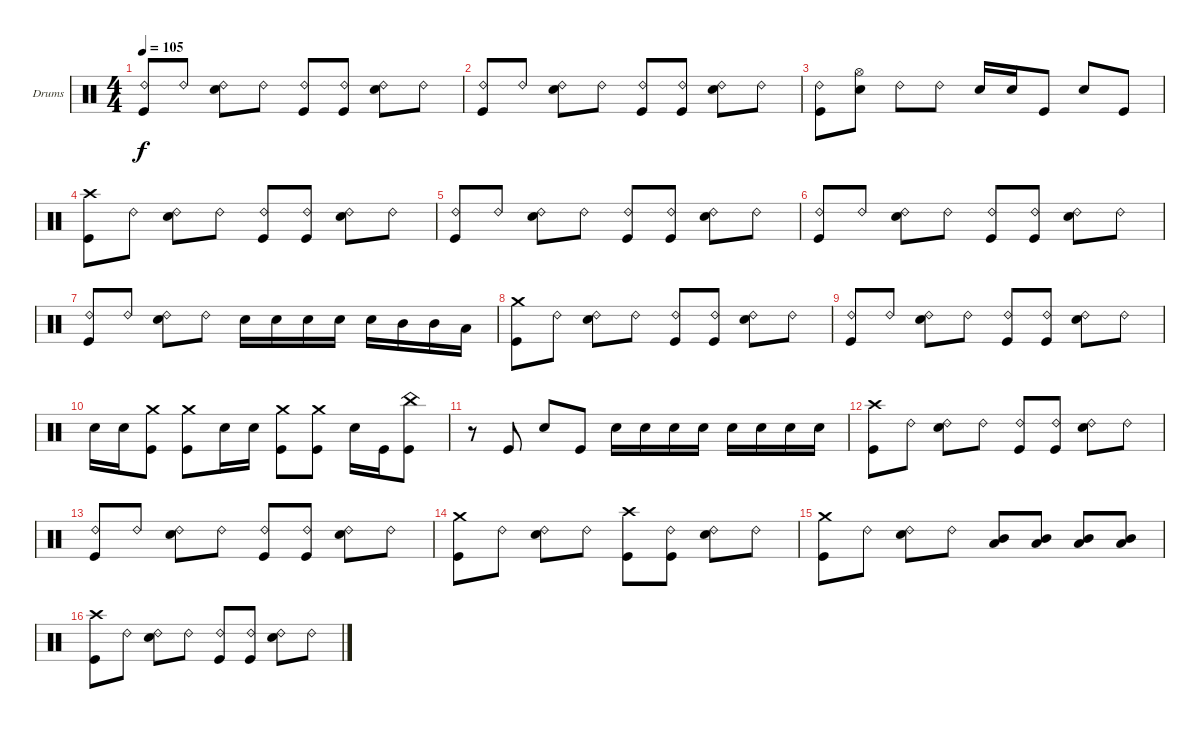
\bracketExtendMode groupsimilarinstruments
\firstSystemTrackNameOrientation horizontal
\otherSystemsTrackNameOrientation horizontal
\track ("Drumkit" "Drums") {instrument percussion}
\staff {score}
\articulation defaults
\ts (4 4)
\tempo 105
\clef neutral
\ks c
("Ride (bell) 2" "Kick (hit)").8{dy f} "Ride (bell) 2".8 ("Ride (bell) 2" "Snare (hit) 2").8 "Ride (bell) 2".8 ("Ride (bell) 2" "Kick (hit)").8 ("Ride (bell) 2" "Kick (hit)").8 ("Ride (bell) 2" "Snare (hit) 2").8 "Ride (bell) 2".8 |
("Ride (bell) 2" "Kick (hit)").8 "Ride (bell) 2".8 ("Ride (bell) 2" "Snare (hit) 2").8 "Ride (bell) 2".8 ("Ride (bell) 2" "Kick (hit)").8 ("Ride (bell) 2" "Kick (hit)").8 ("Ride (bell) 2" "Snare (hit) 2").8 "Ride (bell) 2".8 |
("Ride (bell) 2" "Kick (hit)").8 ("Hi-Hat (open)" "Snare (hit) 2").8 "Ride (bell) 2".8 "Ride (bell) 2".8 "Snare (hit) 2".16 "Snare (hit) 2".16 "Kick (hit)".8 "Snare (hit) 2".8 "Kick (hit)".8 |
("Crash high (hit)" "Kick (hit)").8 "Ride (bell) 2".8 ("Ride (bell) 2" "Snare (hit) 2").8 "Ride (bell) 2".8 ("Ride (bell) 2" "Kick (hit)").8 ("Ride (bell) 2" "Kick (hit)").8 ("Ride (bell) 2" "Snare (hit) 2").8 "Ride (bell) 2".8 |
("Ride (bell) 2" "Kick (hit)").8 "Ride (bell) 2".8 ("Ride (bell) 2" "Snare (hit) 2").8 "Ride (bell) 2".8 ("Ride (bell) 2" "Kick (hit)").8 ("Ride (bell) 2" "Kick (hit)").8 ("Ride (bell) 2" "Snare (hit) 2").8 "Ride (bell) 2".8 |
("Ride (bell) 2" "Kick (hit)").8 "Ride (bell) 2".8 ("Ride (bell) 2" "Snare (hit) 2").8 "Ride (bell) 2".8 ("Ride (bell) 2" "Kick (hit)").8 ("Ride (bell) 2" "Kick (hit)").8 ("Ride (bell) 2" "Snare (hit) 2").8 "Ride (bell) 2".8 |
("Ride (bell) 2" "Kick (hit)").8 "Ride (bell) 2".8 ("Ride (bell) 2" "Snare (hit) 2").8 "Ride (bell) 2".8 "Snare (hit) 2".16 "Snare (hit) 2".16 "Snare (hit) 2".16 "Snare (hit) 2".16 "Snare (hit) 2".16 "Mid Tom (hit)".16 "Mid Tom (hit)".16 "Low Tom (hit)".16 |
("Crash medium (hit)" "Kick (hit)").8 "Ride (bell) 2".8 ("Ride (bell) 2" "Snare (hit) 2").8 "Ride (bell) 2".8 ("Ride (bell) 2" "Kick (hit)").8 ("Ride (bell) 2" "Kick (hit)").8 ("Ride (bell) 2" "Snare (hit) 2").8 "Ride (bell) 2".8 |
("Ride (bell) 2" "Kick (hit)").8 "Ride (bell) 2".8 ("Ride (bell) 2" "Snare (hit) 2").8 "Ride (bell) 2".8 ("Ride (bell) 2" "Kick (hit)").8 ("Ride (bell) 2" "Kick (hit)").8 ("Ride (bell) 2" "Snare (hit) 2").8 "Ride (bell) 2".8 |
"Snare (hit) 2".16 "Snare (hit) 2".16 ("Crash medium (hit)" "Kick (hit)").8 ("Crash medium (hit)" "Kick (hit)").8 "Snare (hit) 2".16 "Snare (hit) 2".16 ("Crash medium (hit)" "Kick (hit)").8 ("Crash medium (hit)" "Kick (hit)").8 "Snare (hit) 2".16 "Kick (hit)".16 ("China (hit)" "Kick (hit)").8 |
r.8 "Kick (hit)".8 "Snare (hit) 2".8 "Kick (hit)".8 "Snare (hit) 2".16 "Snare (hit) 2".16 "Snare (hit) 2".16 "Snare (hit) 2".16 "Snare (hit) 2".16 "Snare (hit) 2".16 "Snare (hit) 2".16 "Snare (hit) 2".16 |
("Crash high (hit)" "Kick (hit)").8 "Ride (bell) 2".8 ("Ride (bell) 2" "Snare (hit) 2").8 "Ride (bell) 2".8 ("Ride (bell) 2" "Kick (hit)").8 ("Ride (bell) 2" "Kick (hit)").8 ("Ride (bell) 2" "Snare (hit) 2").8 "Ride (bell) 2".8 |
("Ride (bell) 2" "Kick (hit)").8 "Ride (bell) 2".8 ("Ride (bell) 2" "Snare (hit) 2").8 "Ride (bell) 2".8 ("Ride (bell) 2" "Kick (hit)").8 ("Ride (bell) 2" "Kick (hit)").8 ("Ride (bell) 2" "Snare (hit) 2").8 "Ride (bell) 2".8 |
("Crash medium (hit)" "Kick (hit)").8 "Ride (bell) 2".8 ("Ride (bell) 2" "Snare (hit) 2").8 "Ride (bell) 2".8 ("Crash high (hit)" "Kick (hit)").8 ("Ride (bell) 2" "Kick (hit)").8 ("Ride (bell) 2" "Snare (hit) 2").8 "Ride (bell) 2".8 |
("Crash medium (hit)" "Kick (hit)").8 "Ride (bell) 2".8 ("Ride (bell) 2" "Snare (hit) 2").8 "Ride (bell) 2".8 ("Mid Tom (hit)" "Low Tom (hit)").8 ("Mid Tom (hit)" "Low Tom (hit)").8 ("Mid Tom (hit)" "Low Tom (hit)").8 ("Mid Tom (hit)" "Low Tom (hit)").8 |
("Crash high (hit)" "Kick (hit)").8 "Ride (bell) 2".8 ("Ride (bell) 2" "Snare (hit) 2").8 "Ride (bell) 2".8 ("Ride (bell) 2" "Kick (hit)").8 ("Ride (bell) 2" "Kick (hit)").8 ("Ride (bell) 2" "Snare (hit) 2").8 "Ride (bell) 2".8
